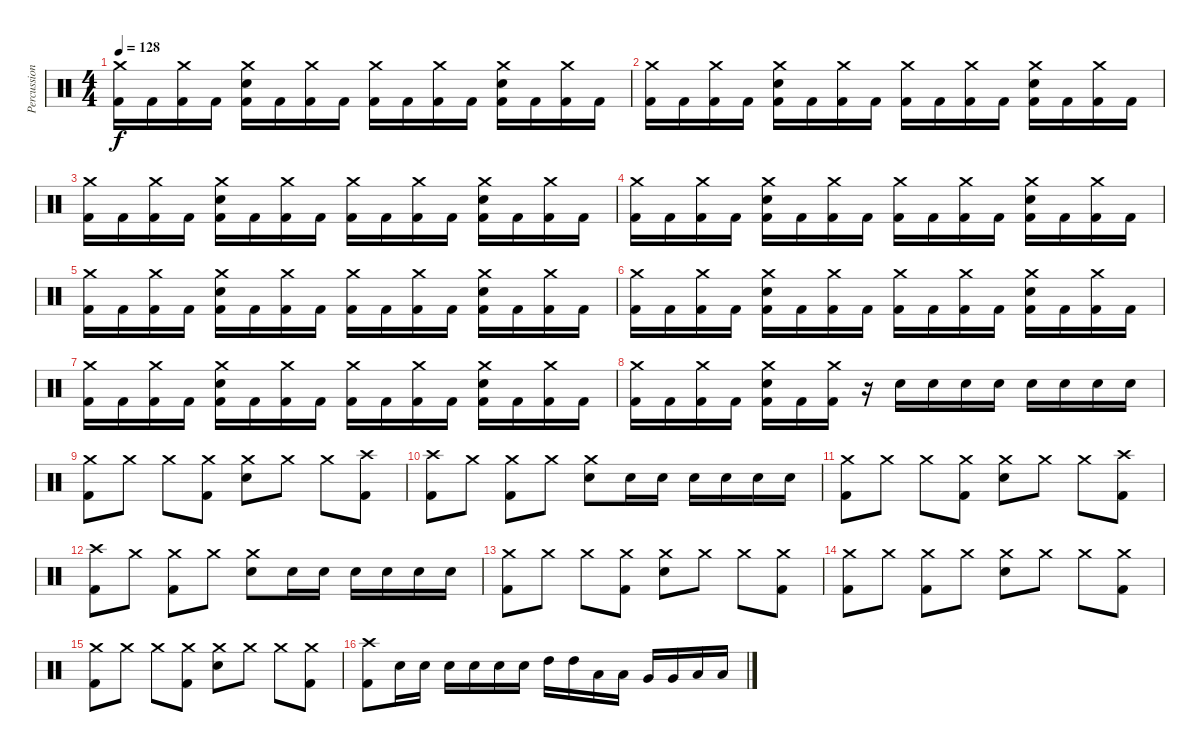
\track ("Percussion" "Percussion") {instrument percussion}
\staff {score}
\articulation defaults
\ts (4 4)
\tempo 128
\clef neutral
\ks c
("Crash medium (hit)" "Kick (hit) 2").16{dy f} "Kick (hit) 2".16 ("Crash medium (hit)" "Kick (hit) 2").16 "Kick (hit) 2".16 ("Crash medium (hit)" "Electric Snare (hit)" "Kick (hit) 2").16 "Kick (hit) 2".16 ("Crash medium (hit)" "Kick (hit) 2").16 "Kick (hit) 2".16 ("Crash medium (hit)" "Kick (hit) 2").16 "Kick (hit) 2".16 ("Crash medium (hit)" "Kick (hit) 2").16 "Kick (hit) 2".16 ("Crash medium (hit)" "Electric Snare (hit)" "Kick (hit) 2").16 "Kick (hit) 2".16 ("Crash medium (hit)" "Kick (hit) 2").16 "Kick (hit) 2".16 |
("Crash medium (hit)" "Kick (hit) 2").16 "Kick (hit) 2".16 ("Crash medium (hit)" "Kick (hit) 2").16 "Kick (hit) 2".16 ("Crash medium (hit)" "Electric Snare (hit)" "Kick (hit) 2").16 "Kick (hit) 2".16 ("Crash medium (hit)" "Kick (hit) 2").16 "Kick (hit) 2".16 ("Crash medium (hit)" "Kick (hit) 2").16 "Kick (hit) 2".16 ("Crash medium (hit)" "Kick (hit) 2").16 "Kick (hit) 2".16 ("Crash medium (hit)" "Electric Snare (hit)" "Kick (hit) 2").16 "Kick (hit) 2".16 ("Crash medium (hit)" "Kick (hit) 2").16 "Kick (hit) 2".16 |
("Crash medium (hit)" "Kick (hit) 2").16 "Kick (hit) 2".16 ("Crash medium (hit)" "Kick (hit) 2").16 "Kick (hit) 2".16 ("Crash medium (hit)" "Electric Snare (hit)" "Kick (hit) 2").16 "Kick (hit) 2".16 ("Crash medium (hit)" "Kick (hit) 2").16 "Kick (hit) 2".16 ("Crash medium (hit)" "Kick (hit) 2").16 "Kick (hit) 2".16 ("Crash medium (hit)" "Kick (hit) 2").16 "Kick (hit) 2".16 ("Crash medium (hit)" "Electric Snare (hit)" "Kick (hit) 2").16 "Kick (hit) 2".16 ("Crash medium (hit)" "Kick (hit) 2").16 "Kick (hit) 2".16 |
("Crash medium (hit)" "Kick (hit) 2").16 "Kick (hit) 2".16 ("Crash medium (hit)" "Kick (hit) 2").16 "Kick (hit) 2".16 ("Crash medium (hit)" "Electric Snare (hit)" "Kick (hit) 2").16 "Kick (hit) 2".16 ("Crash medium (hit)" "Kick (hit) 2").16 "Kick (hit) 2".16 ("Crash medium (hit)" "Kick (hit) 2").16 "Kick (hit) 2".16 ("Crash medium (hit)" "Kick (hit) 2").16 "Kick (hit) 2".16 ("Crash medium (hit)" "Electric Snare (hit)" "Kick (hit) 2").16 "Kick (hit) 2".16 ("Crash medium (hit)" "Kick (hit) 2").16 "Kick (hit) 2".16 |
("Crash medium (hit)" "Kick (hit) 2").16 "Kick (hit) 2".16 ("Crash medium (hit)" "Kick (hit) 2").16 "Kick (hit) 2".16 ("Crash medium (hit)" "Electric Snare (hit)" "Kick (hit) 2").16 "Kick (hit) 2".16 ("Crash medium (hit)" "Kick (hit) 2").16 "Kick (hit) 2".16 ("Crash medium (hit)" "Kick (hit) 2").16 "Kick (hit) 2".16 ("Crash medium (hit)" "Kick (hit) 2").16 "Kick (hit) 2".16 ("Crash medium (hit)" "Electric Snare (hit)" "Kick (hit) 2").16 "Kick (hit) 2".16 ("Crash medium (hit)" "Kick (hit) 2").16 "Kick (hit) 2".16 |
("Crash medium (hit)" "Kick (hit) 2").16 "Kick (hit) 2".16 ("Crash medium (hit)" "Kick (hit) 2").16 "Kick (hit) 2".16 ("Crash medium (hit)" "Electric Snare (hit)" "Kick (hit) 2").16 "Kick (hit) 2".16 ("Crash medium (hit)" "Kick (hit) 2").16 "Kick (hit) 2".16 ("Crash medium (hit)" "Kick (hit) 2").16 "Kick (hit) 2".16 ("Crash medium (hit)" "Kick (hit) 2").16 "Kick (hit) 2".16 ("Crash medium (hit)" "Electric Snare (hit)" "Kick (hit) 2").16 "Kick (hit) 2".16 ("Crash medium (hit)" "Kick (hit) 2").16 "Kick (hit) 2".16 |
("Crash medium (hit)" "Kick (hit) 2").16 "Kick (hit) 2".16 ("Crash medium (hit)" "Kick (hit) 2").16 "Kick (hit) 2".16 ("Crash medium (hit)" "Electric Snare (hit)" "Kick (hit) 2").16 "Kick (hit) 2".16 ("Crash medium (hit)" "Kick (hit) 2").16 "Kick (hit) 2".16 ("Crash medium (hit)" "Kick (hit) 2").16 "Kick (hit) 2".16 ("Crash medium (hit)" "Kick (hit) 2").16 "Kick (hit) 2".16 ("Crash medium (hit)" "Electric Snare (hit)" "Kick (hit) 2").16 "Kick (hit) 2".16 ("Crash medium (hit)" "Kick (hit) 2").16 "Kick (hit) 2".16 |
("Crash medium (hit)" "Kick (hit) 2").16 "Kick (hit) 2".16 ("Crash medium (hit)" "Kick (hit) 2").16 "Kick (hit) 2".16 ("Crash medium (hit)" "Electric Snare (hit)" "Kick (hit) 2").16 "Kick (hit) 2".16 ("Crash medium (hit)" "Kick (hit) 2").16 r.16 "Electric Snare (hit)".16 "Electric Snare (hit)".16 "Electric Snare (hit)".16 "Electric Snare (hit)".16 "Electric Snare (hit)".16 "Electric Snare (hit)".16 "Electric Snare (hit)".16 "Electric Snare (hit)".16 |
("Crash medium (hit)" "Kick (hit) 2").8 "Crash medium (hit)".8 "Crash medium (hit)".8 ("Crash medium (hit)" "Kick (hit) 2").8 ("Crash medium (hit)" "Electric Snare (hit)").8 "Crash medium (hit)".8 "Crash medium (hit)".8 ("Crash high (hit)" "Kick (hit) 2").8 |
("Crash high (hit)" "Kick (hit) 2").8 "Crash medium (hit)".8 ("Crash medium (hit)" "Kick (hit) 2").8 "Crash medium (hit)".8 ("Crash medium (hit)" "Electric Snare (hit)").8 "Electric Snare (hit)".16 "Electric Snare (hit)".16 "Electric Snare (hit)".16 "Electric Snare (hit)".16 "Electric Snare (hit)".16 "Electric Snare (hit)".16 |
("Crash medium (hit)" "Kick (hit) 2").8 "Crash medium (hit)".8 "Crash medium (hit)".8 ("Crash medium (hit)" "Kick (hit) 2").8 ("Crash medium (hit)" "Electric Snare (hit)").8 "Crash medium (hit)".8 "Crash medium (hit)".8 ("Crash high (hit)" "Kick (hit) 2").8 |
("Crash high (hit)" "Kick (hit) 2").8 "Crash medium (hit)".8 ("Crash medium (hit)" "Kick (hit) 2").8 "Crash medium (hit)".8 ("Crash medium (hit)" "Electric Snare (hit)").8 "Electric Snare (hit)".16 "Electric Snare (hit)".16 "Electric Snare (hit)".16 "Electric Snare (hit)".16 "Electric Snare (hit)".16 "Electric Snare (hit)".16 |
("Crash medium (hit)" "Kick (hit) 2").8 "Crash medium (hit)".8 "Crash medium (hit)".8 ("Crash medium (hit)" "Kick (hit) 2").8 ("Crash medium (hit)" "Electric Snare (hit)").8 "Crash medium (hit)".8 "Crash medium (hit)".8 ("Crash medium (hit)" "Kick (hit) 2").8 |
("Crash medium (hit)" "Kick (hit) 2").8 "Crash medium (hit)".8 ("Crash medium (hit)" "Kick (hit) 2").8 "Crash medium (hit)".8 ("Crash medium (hit)" "Electric Snare (hit)").8 "Crash medium (hit)".8 "Crash medium (hit)".8 ("Crash medium (hit)" "Kick (hit) 2").8 |
("Crash medium (hit)" "Kick (hit) 2").8 "Crash medium (hit)".8 "Crash medium (hit)".8 ("Crash medium (hit)" "Kick (hit) 2").8 ("Crash medium (hit)" "Electric Snare (hit)").8 "Crash medium (hit)".8 "Crash medium (hit)".8 ("Crash medium (hit)" "Kick (hit) 2").8 |
("Crash high (hit)" "Kick (hit) 2").8 "Electric Snare (hit)".16 "Electric Snare (hit)".16 "Electric Snare (hit)".16 "Electric Snare (hit)".16 "Electric Snare (hit)".16 "Electric Snare (hit)".16 "High Tom (hit)".16 "High Tom (hit)".16 "Low Tom (hit)".16 "Low Tom (hit)".16 "Very Low Tom (hit)".16 "Very Low Tom (hit)".16 "Low Floor Tom (hit)".16 "Low Floor Tom (hit)".16
